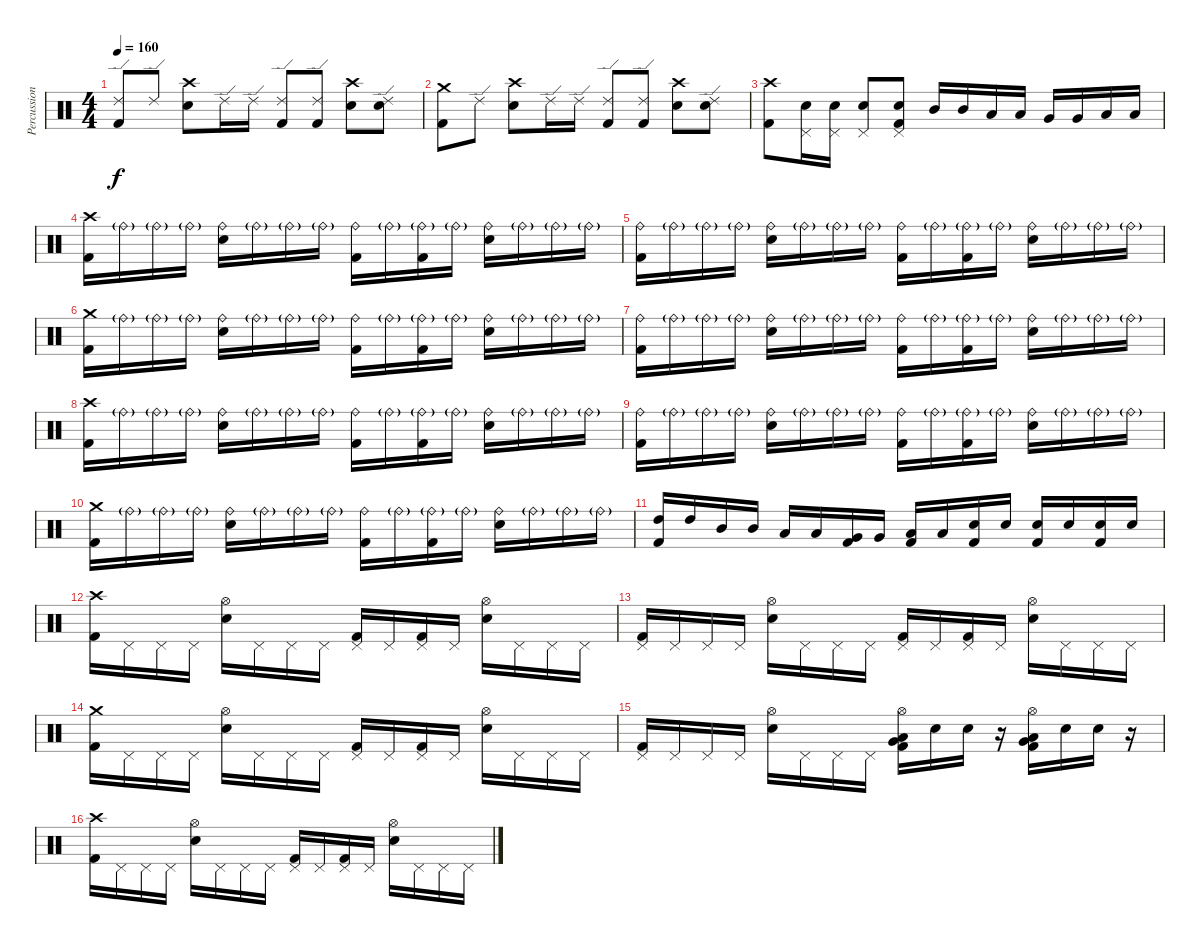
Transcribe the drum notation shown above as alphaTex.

\track ("Percussion" "Percussion") {instrument percussion}
\staff {score}
\articulation defaults
\ts (4 4)
\tempo 160
\clef neutral
\ks c
("Ride (edge) 2" "Kick (hit) 2").8{dy f} "Ride (edge) 2".8 ("Crash high (hit)" "Electric Snare (hit)").8 "Ride (edge) 2".16 "Ride (edge) 2".16 ("Ride (edge) 2" "Kick (hit) 2").8 ("Ride (edge) 2" "Kick (hit) 2").8 ("Crash high (hit)" "Electric Snare (hit)").8 ("Ride (edge) 2" "Electric Snare (hit)").8 |
("Crash medium (hit)" "Kick (hit) 2").8 "Ride (edge) 2".8 ("Crash high (hit)" "Electric Snare (hit)").8 "Ride (edge) 2".16 "Ride (edge) 2".16 ("Ride (edge) 2" "Kick (hit) 2").8 ("Ride (edge) 2" "Kick (hit) 2").8 ("Crash high (hit)" "Electric Snare (hit)").8 ("Ride (edge) 2" "Electric Snare (hit)").8 |
("Crash high (hit)" "Kick (hit) 2").8 ("Pedal Hi-Hat (hit)" "Electric Snare (hit)").16 ("Pedal Hi-Hat (hit)" "Electric Snare (hit)").16 ("Pedal Hi-Hat (hit)" "Electric Snare (hit)").8 ("Pedal Hi-Hat (hit)" "Electric Snare (hit)" "Kick (hit) 2").8 "Mid Tom (hit)".16 "Mid Tom (hit)".16 "Low Tom (hit)".16 "Low Tom (hit)".16 "Very Low Tom (hit)".16 "Very Low Tom (hit)".16 "Low Floor Tom (hit)".16 "Low Floor Tom (hit)".16 |
("Crash high (hit)" "Kick (hit) 2").16 "Ride (bell)"{g}.16 "Ride (bell)"{g}.16 "Ride (bell)"{g}.16 ("Ride (bell)" "Electric Snare (hit)").16 "Ride (bell)"{g}.16 "Ride (bell)"{g}.16 "Ride (bell)"{g}.16 ("Ride (bell)" "Kick (hit) 2").16 "Ride (bell)"{g}.16 ("Ride (bell)"{g} "Kick (hit) 2").16 "Ride (bell)"{g}.16 ("Ride (bell)" "Electric Snare (hit)").16 "Ride (bell)"{g}.16 "Ride (bell)"{g}.16 "Ride (bell)"{g}.16 |
("Ride (bell)" "Kick (hit) 2").16 "Ride (bell)"{g}.16 "Ride (bell)"{g}.16 "Ride (bell)"{g}.16 ("Ride (bell)" "Electric Snare (hit)").16 "Ride (bell)"{g}.16 "Ride (bell)"{g}.16 "Ride (bell)"{g}.16 ("Ride (bell)" "Kick (hit) 2").16 "Ride (bell)"{g}.16 ("Ride (bell)"{g} "Kick (hit) 2").16 "Ride (bell)"{g}.16 ("Ride (bell)" "Electric Snare (hit)").16 "Ride (bell)"{g}.16 "Ride (bell)"{g}.16 "Ride (bell)"{g}.16 |
("Crash medium (hit)" "Kick (hit) 2").16 "Ride (bell)"{g}.16 "Ride (bell)"{g}.16 "Ride (bell)"{g}.16 ("Ride (bell)" "Electric Snare (hit)").16 "Ride (bell)"{g}.16 "Ride (bell)"{g}.16 "Ride (bell)"{g}.16 ("Ride (bell)" "Kick (hit) 2").16 "Ride (bell)"{g}.16 ("Ride (bell)"{g} "Kick (hit) 2").16 "Ride (bell)"{g}.16 ("Ride (bell)" "Electric Snare (hit)").16 "Ride (bell)"{g}.16 "Ride (bell)"{g}.16 "Ride (bell)"{g}.16 |
("Ride (bell)" "Kick (hit) 2").16 "Ride (bell)"{g}.16 "Ride (bell)"{g}.16 "Ride (bell)"{g}.16 ("Ride (bell)" "Electric Snare (hit)").16 "Ride (bell)"{g}.16 "Ride (bell)"{g}.16 "Ride (bell)"{g}.16 ("Ride (bell)" "Kick (hit) 2").16 "Ride (bell)"{g}.16 ("Ride (bell)"{g} "Kick (hit) 2").16 "Ride (bell)"{g}.16 ("Ride (bell)" "Electric Snare (hit)").16 "Ride (bell)"{g}.16 "Ride (bell)"{g}.16 "Ride (bell)"{g}.16 |
("Crash high (hit)" "Kick (hit) 2").16 "Ride (bell)"{g}.16 "Ride (bell)"{g}.16 "Ride (bell)"{g}.16 ("Ride (bell)" "Electric Snare (hit)").16 "Ride (bell)"{g}.16 "Ride (bell)"{g}.16 "Ride (bell)"{g}.16 ("Ride (bell)" "Kick (hit) 2").16 "Ride (bell)"{g}.16 ("Ride (bell)"{g} "Kick (hit) 2").16 "Ride (bell)"{g}.16 ("Ride (bell)" "Electric Snare (hit)").16 "Ride (bell)"{g}.16 "Ride (bell)"{g}.16 "Ride (bell)"{g}.16 |
("Ride (bell)" "Kick (hit) 2").16 "Ride (bell)"{g}.16 "Ride (bell)"{g}.16 "Ride (bell)"{g}.16 ("Ride (bell)" "Electric Snare (hit)").16 "Ride (bell)"{g}.16 "Ride (bell)"{g}.16 "Ride (bell)"{g}.16 ("Ride (bell)" "Kick (hit) 2").16 "Ride (bell)"{g}.16 ("Ride (bell)"{g} "Kick (hit) 2").16 "Ride (bell)"{g}.16 ("Ride (bell)" "Electric Snare (hit)").16 "Ride (bell)"{g}.16 "Ride (bell)"{g}.16 "Ride (bell)"{g}.16 |
("Crash medium (hit)" "Kick (hit) 2").16 "Ride (bell)"{g}.16 "Ride (bell)"{g}.16 "Ride (bell)"{g}.16 ("Ride (bell)" "Electric Snare (hit)").16 "Ride (bell)"{g}.16 "Ride (bell)"{g}.16 "Ride (bell)"{g}.16 ("Ride (bell)" "Kick (hit) 2").16 "Ride (bell)"{g}.16 ("Ride (bell)"{g} "Kick (hit) 2").16 "Ride (bell)"{g}.16 ("Ride (bell)" "Electric Snare (hit)").16 "Ride (bell)"{g}.16 "Ride (bell)"{g}.16 "Ride (bell)"{g}.16 |
("High Tom (hit)" "Kick (hit) 2").16 "High Tom (hit)".16 "Mid Tom (hit)".16 "Mid Tom (hit)".16 "Low Tom (hit)".16 "Low Tom (hit)".16 ("Very Low Tom (hit)" "Kick (hit) 2").16 "Very Low Tom (hit)".16 ("Low Floor Tom (hit)" "Kick (hit) 2").16 "Low Floor Tom (hit)".16 ("Electric Snare (hit)" "Kick (hit) 2").16 "Electric Snare (hit)".16 ("Electric Snare (hit)" "Kick (hit) 2").16 "Electric Snare (hit)".16 ("Electric Snare (hit)" "Kick (hit) 2").16 "Electric Snare (hit)".16 |
("Crash high (hit)" "Kick (hit) 2").16 "Pedal Hi-Hat (hit)".16 "Pedal Hi-Hat (hit)".16 "Pedal Hi-Hat (hit)".16 ("Hi-Hat (open)" "Electric Snare (hit)").16 "Pedal Hi-Hat (hit)".16 "Pedal Hi-Hat (hit)".16 "Pedal Hi-Hat (hit)".16 ("Pedal Hi-Hat (hit)" "Kick (hit) 2").16 "Pedal Hi-Hat (hit)".16 ("Pedal Hi-Hat (hit)" "Kick (hit) 2").16 "Pedal Hi-Hat (hit)".16 ("Hi-Hat (open)" "Electric Snare (hit)").16 "Pedal Hi-Hat (hit)".16 "Pedal Hi-Hat (hit)".16 "Pedal Hi-Hat (hit)".16 |
("Pedal Hi-Hat (hit)" "Kick (hit) 2").16 "Pedal Hi-Hat (hit)".16 "Pedal Hi-Hat (hit)".16 "Pedal Hi-Hat (hit)".16 ("Hi-Hat (open)" "Electric Snare (hit)").16 "Pedal Hi-Hat (hit)".16 "Pedal Hi-Hat (hit)".16 "Pedal Hi-Hat (hit)".16 ("Pedal Hi-Hat (hit)" "Kick (hit) 2").16 "Pedal Hi-Hat (hit)".16 ("Pedal Hi-Hat (hit)" "Kick (hit) 2").16 "Pedal Hi-Hat (hit)".16 ("Hi-Hat (open)" "Electric Snare (hit)").16 "Pedal Hi-Hat (hit)".16 "Pedal Hi-Hat (hit)".16 "Pedal Hi-Hat (hit)".16 |
("Crash medium (hit)" "Kick (hit) 2").16 "Pedal Hi-Hat (hit)".16 "Pedal Hi-Hat (hit)".16 "Pedal Hi-Hat (hit)".16 ("Hi-Hat (open)" "Electric Snare (hit)").16 "Pedal Hi-Hat (hit)".16 "Pedal Hi-Hat (hit)".16 "Pedal Hi-Hat (hit)".16 ("Pedal Hi-Hat (hit)" "Kick (hit) 2").16 "Pedal Hi-Hat (hit)".16 ("Pedal Hi-Hat (hit)" "Kick (hit) 2").16 "Pedal Hi-Hat (hit)".16 ("Hi-Hat (open)" "Electric Snare (hit)").16 "Pedal Hi-Hat (hit)".16 "Pedal Hi-Hat (hit)".16 "Pedal Hi-Hat (hit)".16 |
("Pedal Hi-Hat (hit)" "Kick (hit) 2").16 "Pedal Hi-Hat (hit)".16 "Pedal Hi-Hat (hit)".16 "Pedal Hi-Hat (hit)".16 ("Hi-Hat (open)" "Electric Snare (hit)").16 "Pedal Hi-Hat (hit)".16 "Pedal Hi-Hat (hit)".16 "Pedal Hi-Hat (hit)".16 ("Hi-Hat (open)" "Low Tom (hit)" "Very Low Tom (hit)" "Kick (hit) 2").16 "Electric Snare (hit)".16 "Electric Snare (hit)".16 r.16 ("Hi-Hat (open)" "Very Low Tom (hit)" "Low Floor Tom (hit)" "Kick (hit) 2").16 "Electric Snare (hit)".16 "Electric Snare (hit)".16 r.16 |
("Crash high (hit)" "Kick (hit) 2").16 "Pedal Hi-Hat (hit)".16 "Pedal Hi-Hat (hit)".16 "Pedal Hi-Hat (hit)".16 ("Hi-Hat (open)" "Electric Snare (hit)").16 "Pedal Hi-Hat (hit)".16 "Pedal Hi-Hat (hit)".16 "Pedal Hi-Hat (hit)".16 ("Pedal Hi-Hat (hit)" "Kick (hit) 2").16 "Pedal Hi-Hat (hit)".16 ("Pedal Hi-Hat (hit)" "Kick (hit) 2").16 "Pedal Hi-Hat (hit)".16 ("Hi-Hat (open)" "Electric Snare (hit)").16 "Pedal Hi-Hat (hit)".16 "Pedal Hi-Hat (hit)".16 "Pedal Hi-Hat (hit)".16
